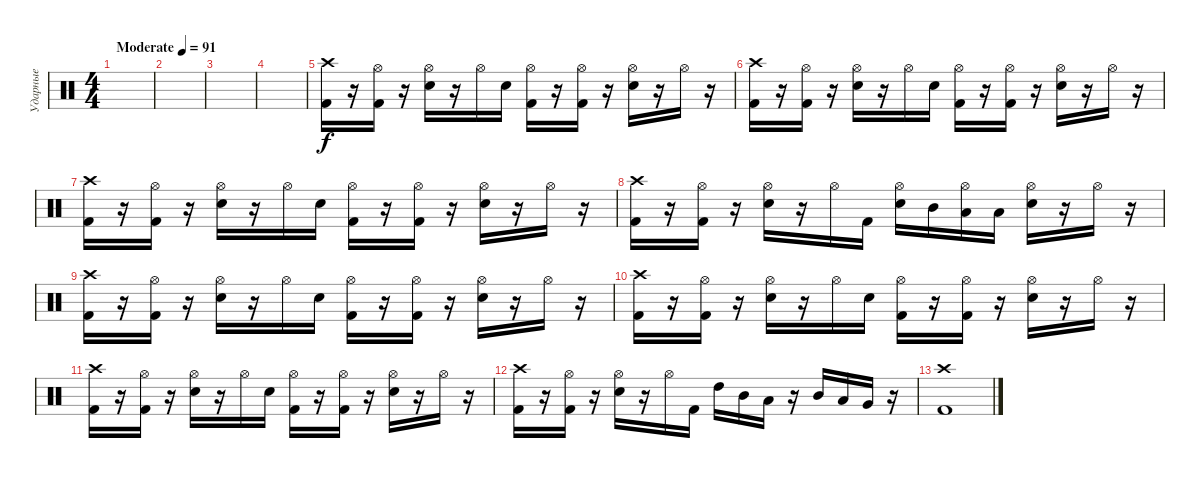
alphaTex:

\track ("Ударные" "Ударные") {instrument percussion}
\staff {score}
\articulation defaults
\ts (4 4)
\tempo (91 "Moderate")
\clef neutral
\ks c
|
|
|
|
("Crash high (hit)" "Kick (hit) 2").16 r.16 ("Hi-Hat (open)" "Kick (hit) 2").16 r.16 ("Hi-Hat (open)" "Snare (hit) 2").16 r.16 "Hi-Hat (open)".16 "Snare (hit) 2".16 ("Hi-Hat (open)" "Kick (hit) 2").16 r.16 ("Hi-Hat (open)" "Kick (hit) 2").16 r.16 ("Hi-Hat (open)" "Snare (hit) 2").16 r.16 "Hi-Hat (open)".16 r.16 |
("Crash high (hit)" "Kick (hit) 2").16 r.16 ("Hi-Hat (open)" "Kick (hit) 2").16 r.16 ("Hi-Hat (open)" "Snare (hit) 2").16 r.16 "Hi-Hat (open)".16 "Snare (hit) 2".16 ("Hi-Hat (open)" "Kick (hit) 2").16 r.16 ("Hi-Hat (open)" "Kick (hit) 2").16 r.16 ("Hi-Hat (open)" "Snare (hit) 2").16 r.16 "Hi-Hat (open)".16 r.16 |
("Crash high (hit)" "Kick (hit) 2").16 r.16 ("Hi-Hat (open)" "Kick (hit) 2").16 r.16 ("Hi-Hat (open)" "Snare (hit) 2").16 r.16 "Hi-Hat (open)".16 "Snare (hit) 2".16 ("Hi-Hat (open)" "Kick (hit) 2").16 r.16 ("Hi-Hat (open)" "Kick (hit) 2").16 r.16 ("Hi-Hat (open)" "Snare (hit) 2").16 r.16 "Hi-Hat (open)".16 r.16 |
("Crash high (hit)" "Kick (hit) 2").16 r.16 ("Hi-Hat (open)" "Kick (hit) 2").16 r.16 ("Hi-Hat (open)" "Snare (hit) 2").16 r.16 "Hi-Hat (open)".16 "Kick (hit) 2".16 ("Hi-Hat (open)" "Snare (hit) 2").16 "Mid Tom (hit)".16 ("Hi-Hat (open)" "Low Floor Tom (hit)").16 "Low Tom (hit)".16 ("Hi-Hat (open)" "Snare (hit) 2").16 r.16 "Hi-Hat (open)".16 r.16 |
("Crash high (hit)" "Kick (hit) 2").16 r.16 ("Hi-Hat (open)" "Kick (hit) 2").16 r.16 ("Hi-Hat (open)" "Snare (hit) 2").16 r.16 "Hi-Hat (open)".16 "Snare (hit) 2".16 ("Hi-Hat (open)" "Kick (hit) 2").16 r.16 ("Hi-Hat (open)" "Kick (hit) 2").16 r.16 ("Hi-Hat (open)" "Snare (hit) 2").16 r.16 "Hi-Hat (open)".16 r.16 |
("Crash high (hit)" "Kick (hit) 2").16 r.16 ("Hi-Hat (open)" "Kick (hit) 2").16 r.16 ("Hi-Hat (open)" "Snare (hit) 2").16 r.16 "Hi-Hat (open)".16 "Snare (hit) 2".16 ("Hi-Hat (open)" "Kick (hit) 2").16 r.16 ("Hi-Hat (open)" "Kick (hit) 2").16 r.16 ("Hi-Hat (open)" "Snare (hit) 2").16 r.16 "Hi-Hat (open)".16 r.16 |
("Crash high (hit)" "Kick (hit) 2").16 r.16 ("Hi-Hat (open)" "Kick (hit) 2").16 r.16 ("Hi-Hat (open)" "Snare (hit) 2").16 r.16 "Hi-Hat (open)".16 "Snare (hit) 2".16 ("Hi-Hat (open)" "Kick (hit) 2").16 r.16 ("Hi-Hat (open)" "Kick (hit) 2").16 r.16 ("Hi-Hat (open)" "Snare (hit) 2").16 r.16 "Hi-Hat (open)".16 r.16 |
("Crash high (hit)" "Kick (hit) 2").16 r.16 ("Hi-Hat (open)" "Kick (hit) 2").16 r.16 ("Hi-Hat (open)" "Snare (hit) 2").16 r.16 "Hi-Hat (open)".16 "Kick (hit) 2".16 "High Tom (hit)".16 "Mid Tom (hit)".16 "Low Tom (hit)".16 r.16 "Mid Tom (hit)".16 "Low Tom (hit)".16 "Very Low Tom (hit)".16 r.16 |
("Crash high (hit)" "Kick (hit) 2").1
